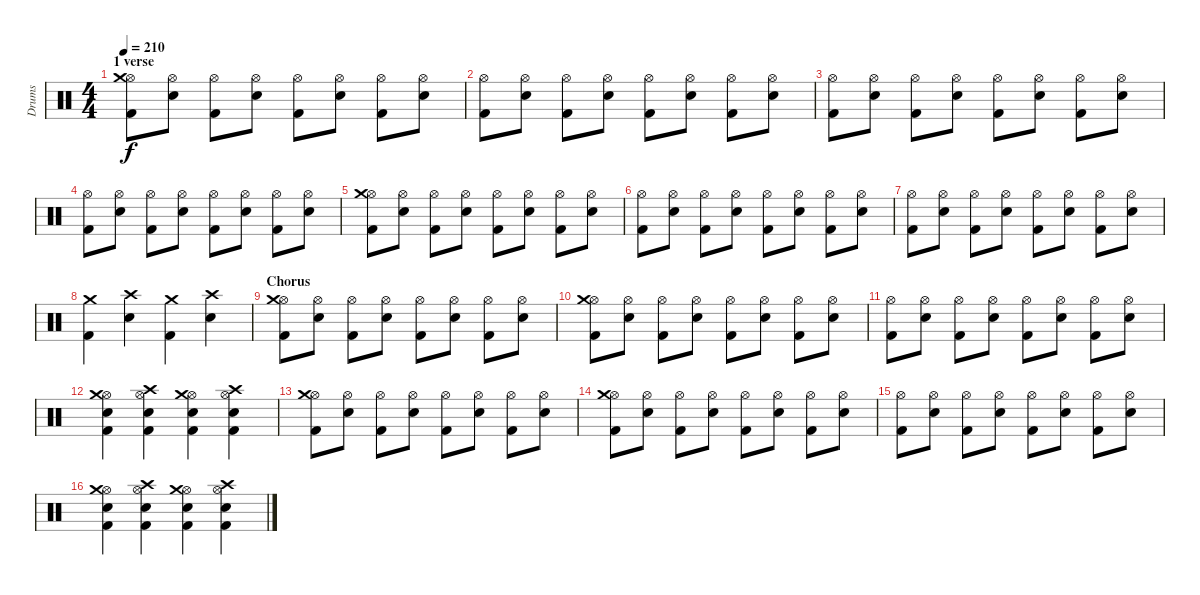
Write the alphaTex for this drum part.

\track ("Drums" "Drums") {instrument percussion}
\staff {score}
\articulation defaults
\ts (4 4)
\section ("" "1 verse")
\tempo 210
\clef neutral
\ks c
("Hi-Hat (open)" "Crash medium (hit)" "Kick (hit) 2").8{dy f} ("Hi-Hat (open)" "Electric Snare (hit)").8 ("Hi-Hat (open)" "Kick (hit) 2").8 ("Hi-Hat (open)" "Electric Snare (hit)").8 ("Hi-Hat (open)" "Kick (hit) 2").8 ("Hi-Hat (open)" "Electric Snare (hit)").8 ("Hi-Hat (open)" "Kick (hit) 2").8 ("Hi-Hat (open)" "Electric Snare (hit)").8 |
("Hi-Hat (open)" "Kick (hit) 2").8 ("Hi-Hat (open)" "Electric Snare (hit)").8 ("Hi-Hat (open)" "Kick (hit) 2").8 ("Hi-Hat (open)" "Electric Snare (hit)").8 ("Hi-Hat (open)" "Kick (hit) 2").8 ("Hi-Hat (open)" "Electric Snare (hit)").8 ("Hi-Hat (open)" "Kick (hit) 2").8 ("Hi-Hat (open)" "Electric Snare (hit)").8 |
("Hi-Hat (open)" "Kick (hit) 2").8 ("Hi-Hat (open)" "Electric Snare (hit)").8 ("Hi-Hat (open)" "Kick (hit) 2").8 ("Hi-Hat (open)" "Electric Snare (hit)").8 ("Hi-Hat (open)" "Kick (hit) 2").8 ("Hi-Hat (open)" "Electric Snare (hit)").8 ("Hi-Hat (open)" "Kick (hit) 2").8 ("Hi-Hat (open)" "Electric Snare (hit)").8 |
("Hi-Hat (open)" "Kick (hit) 2").8 ("Hi-Hat (open)" "Electric Snare (hit)").8 ("Hi-Hat (open)" "Kick (hit) 2").8 ("Hi-Hat (open)" "Electric Snare (hit)").8 ("Hi-Hat (open)" "Kick (hit) 2").8 ("Hi-Hat (open)" "Electric Snare (hit)").8 ("Hi-Hat (open)" "Kick (hit) 2").8 ("Hi-Hat (open)" "Electric Snare (hit)").8 |
("Hi-Hat (open)" "Crash medium (hit)" "Kick (hit) 2").8 ("Hi-Hat (open)" "Electric Snare (hit)").8 ("Hi-Hat (open)" "Kick (hit) 2").8 ("Hi-Hat (open)" "Electric Snare (hit)").8 ("Hi-Hat (open)" "Kick (hit) 2").8 ("Hi-Hat (open)" "Electric Snare (hit)").8 ("Hi-Hat (open)" "Kick (hit) 2").8 ("Hi-Hat (open)" "Electric Snare (hit)").8 |
("Hi-Hat (open)" "Kick (hit) 2").8 ("Hi-Hat (open)" "Electric Snare (hit)").8 ("Hi-Hat (open)" "Kick (hit) 2").8 ("Hi-Hat (open)" "Electric Snare (hit)").8 ("Hi-Hat (open)" "Kick (hit) 2").8 ("Hi-Hat (open)" "Electric Snare (hit)").8 ("Hi-Hat (open)" "Kick (hit) 2").8 ("Hi-Hat (open)" "Electric Snare (hit)").8 |
("Hi-Hat (open)" "Kick (hit) 2").8 ("Hi-Hat (open)" "Electric Snare (hit)").8 ("Hi-Hat (open)" "Kick (hit) 2").8 ("Hi-Hat (open)" "Electric Snare (hit)").8 ("Hi-Hat (open)" "Kick (hit) 2").8 ("Hi-Hat (open)" "Electric Snare (hit)").8 ("Hi-Hat (open)" "Kick (hit) 2").8 ("Hi-Hat (open)" "Electric Snare (hit)").8 |
("Crash medium (hit)" "Kick (hit) 2").4 ("Crash high (hit)" "Electric Snare (hit)").4 ("Crash medium (hit)" "Kick (hit) 2").4 ("Crash high (hit)" "Electric Snare (hit)").4 |
\section ("" "Chorus")
("Hi-Hat (open)" "Crash medium (hit)" "Kick (hit) 2").8 ("Hi-Hat (open)" "Electric Snare (hit)").8 ("Hi-Hat (open)" "Kick (hit) 2").8 ("Hi-Hat (open)" "Electric Snare (hit)").8 ("Hi-Hat (open)" "Kick (hit) 2").8 ("Hi-Hat (open)" "Electric Snare (hit)").8 ("Hi-Hat (open)" "Kick (hit) 2").8 ("Hi-Hat (open)" "Electric Snare (hit)").8 |
("Hi-Hat (open)" "Crash medium (hit)" "Kick (hit) 2").8 ("Hi-Hat (open)" "Electric Snare (hit)").8 ("Hi-Hat (open)" "Kick (hit) 2").8 ("Hi-Hat (open)" "Electric Snare (hit)").8 ("Hi-Hat (open)" "Kick (hit) 2").8 ("Hi-Hat (open)" "Electric Snare (hit)").8 ("Hi-Hat (open)" "Kick (hit) 2").8 ("Hi-Hat (open)" "Electric Snare (hit)").8 |
("Hi-Hat (open)" "Kick (hit) 2").8 ("Hi-Hat (open)" "Electric Snare (hit)").8 ("Hi-Hat (open)" "Kick (hit) 2").8 ("Hi-Hat (open)" "Electric Snare (hit)").8 ("Hi-Hat (open)" "Kick (hit) 2").8 ("Hi-Hat (open)" "Electric Snare (hit)").8 ("Hi-Hat (open)" "Kick (hit) 2").8 ("Hi-Hat (open)" "Electric Snare (hit)").8 |
("Hi-Hat (open)" "Crash medium (hit)" "Electric Snare (hit)" "Kick (hit) 2").4 ("Hi-Hat (open)" "Crash high (hit)" "Electric Snare (hit)" "Kick (hit) 2").4 ("Hi-Hat (open)" "Crash medium (hit)" "Electric Snare (hit)" "Kick (hit) 2").4 ("Hi-Hat (open)" "Crash high (hit)" "Electric Snare (hit)" "Kick (hit) 2").4 |
("Hi-Hat (open)" "Crash medium (hit)" "Kick (hit) 2").8 ("Hi-Hat (open)" "Electric Snare (hit)").8 ("Hi-Hat (open)" "Kick (hit) 2").8 ("Hi-Hat (open)" "Electric Snare (hit)").8 ("Hi-Hat (open)" "Kick (hit) 2").8 ("Hi-Hat (open)" "Electric Snare (hit)").8 ("Hi-Hat (open)" "Kick (hit) 2").8 ("Hi-Hat (open)" "Electric Snare (hit)").8 |
("Hi-Hat (open)" "Crash medium (hit)" "Kick (hit) 2").8 ("Hi-Hat (open)" "Electric Snare (hit)").8 ("Hi-Hat (open)" "Kick (hit) 2").8 ("Hi-Hat (open)" "Electric Snare (hit)").8 ("Hi-Hat (open)" "Kick (hit) 2").8 ("Hi-Hat (open)" "Electric Snare (hit)").8 ("Hi-Hat (open)" "Kick (hit) 2").8 ("Hi-Hat (open)" "Electric Snare (hit)").8 |
("Hi-Hat (open)" "Kick (hit) 2").8 ("Hi-Hat (open)" "Electric Snare (hit)").8 ("Hi-Hat (open)" "Kick (hit) 2").8 ("Hi-Hat (open)" "Electric Snare (hit)").8 ("Hi-Hat (open)" "Kick (hit) 2").8 ("Hi-Hat (open)" "Electric Snare (hit)").8 ("Hi-Hat (open)" "Kick (hit) 2").8 ("Hi-Hat (open)" "Electric Snare (hit)").8 |
("Hi-Hat (open)" "Crash medium (hit)" "Electric Snare (hit)" "Kick (hit) 2").4 ("Hi-Hat (open)" "Crash high (hit)" "Electric Snare (hit)" "Kick (hit) 2").4 ("Hi-Hat (open)" "Crash medium (hit)" "Electric Snare (hit)" "Kick (hit) 2").4 ("Hi-Hat (open)" "Crash high (hit)" "Electric Snare (hit)" "Kick (hit) 2").4
